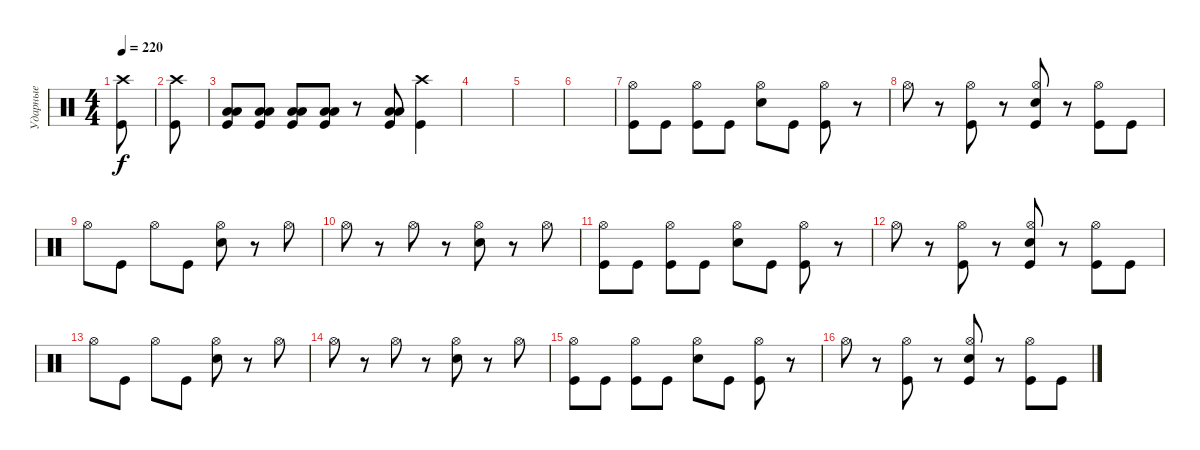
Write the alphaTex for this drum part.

\track ("Ударные" "Ударные") {instrument percussion}
\staff {score}
\articulation defaults
\ts (4 4)
\tempo 220
\clef neutral
\ks c
("Crash high (hit)" "Kick (hit)").8{dy f} |
("Crash high (hit)" "Kick (hit)").8 |
("Low Floor Tom (hit)" "Low Tom (hit)" "Kick (hit)").8 ("Low Floor Tom (hit)" "Low Tom (hit)" "Kick (hit)").8 ("Low Floor Tom (hit)" "Low Tom (hit)" "Kick (hit)").8 ("Low Floor Tom (hit)" "Low Tom (hit)" "Kick (hit)").8 r.8 ("Low Floor Tom (hit)" "Low Tom (hit)" "Kick (hit)").8 ("Crash high (hit)" "Kick (hit)").4 |
|
|
|
("Hi-Hat (open)" "Kick (hit)").8 "Kick (hit)".8 ("Hi-Hat (open)" "Kick (hit)").8 "Kick (hit)".8 ("Hi-Hat (open)" "Electric Snare (hit)").8 "Kick (hit)".8 ("Hi-Hat (open)" "Kick (hit)").8 r.8 |
"Hi-Hat (open)".8 r.8 ("Hi-Hat (open)" "Kick (hit)").8 r.8 ("Hi-Hat (open)" "Electric Snare (hit)" "Kick (hit)").8 r.8 ("Hi-Hat (open)" "Kick (hit)").8 "Kick (hit)".8 |
"Hi-Hat (open)".8 "Kick (hit)".8 "Hi-Hat (open)".8 "Kick (hit)".8 ("Hi-Hat (open)" "Electric Snare (hit)").8 r.8 "Hi-Hat (open)".8 |
"Hi-Hat (open)".8 r.8 "Hi-Hat (open)".8 r.8 ("Hi-Hat (open)" "Electric Snare (hit)").8 r.8 "Hi-Hat (open)".8 |
("Hi-Hat (open)" "Kick (hit)").8 "Kick (hit)".8 ("Hi-Hat (open)" "Kick (hit)").8 "Kick (hit)".8 ("Hi-Hat (open)" "Electric Snare (hit)").8 "Kick (hit)".8 ("Hi-Hat (open)" "Kick (hit)").8 r.8 |
"Hi-Hat (open)".8 r.8 ("Hi-Hat (open)" "Kick (hit)").8 r.8 ("Hi-Hat (open)" "Electric Snare (hit)" "Kick (hit)").8 r.8 ("Hi-Hat (open)" "Kick (hit)").8 "Kick (hit)".8 |
"Hi-Hat (open)".8 "Kick (hit)".8 "Hi-Hat (open)".8 "Kick (hit)".8 ("Hi-Hat (open)" "Electric Snare (hit)").8 r.8 "Hi-Hat (open)".8 |
"Hi-Hat (open)".8 r.8 "Hi-Hat (open)".8 r.8 ("Hi-Hat (open)" "Electric Snare (hit)").8 r.8 "Hi-Hat (open)".8 |
("Hi-Hat (open)" "Kick (hit)").8 "Kick (hit)".8 ("Hi-Hat (open)" "Kick (hit)").8 "Kick (hit)".8 ("Hi-Hat (open)" "Electric Snare (hit)").8 "Kick (hit)".8 ("Hi-Hat (open)" "Kick (hit)").8 r.8 |
"Hi-Hat (open)".8 r.8 ("Hi-Hat (open)" "Kick (hit)").8 r.8 ("Hi-Hat (open)" "Electric Snare (hit)" "Kick (hit)").8 r.8 ("Hi-Hat (open)" "Kick (hit)").8 "Kick (hit)".8
